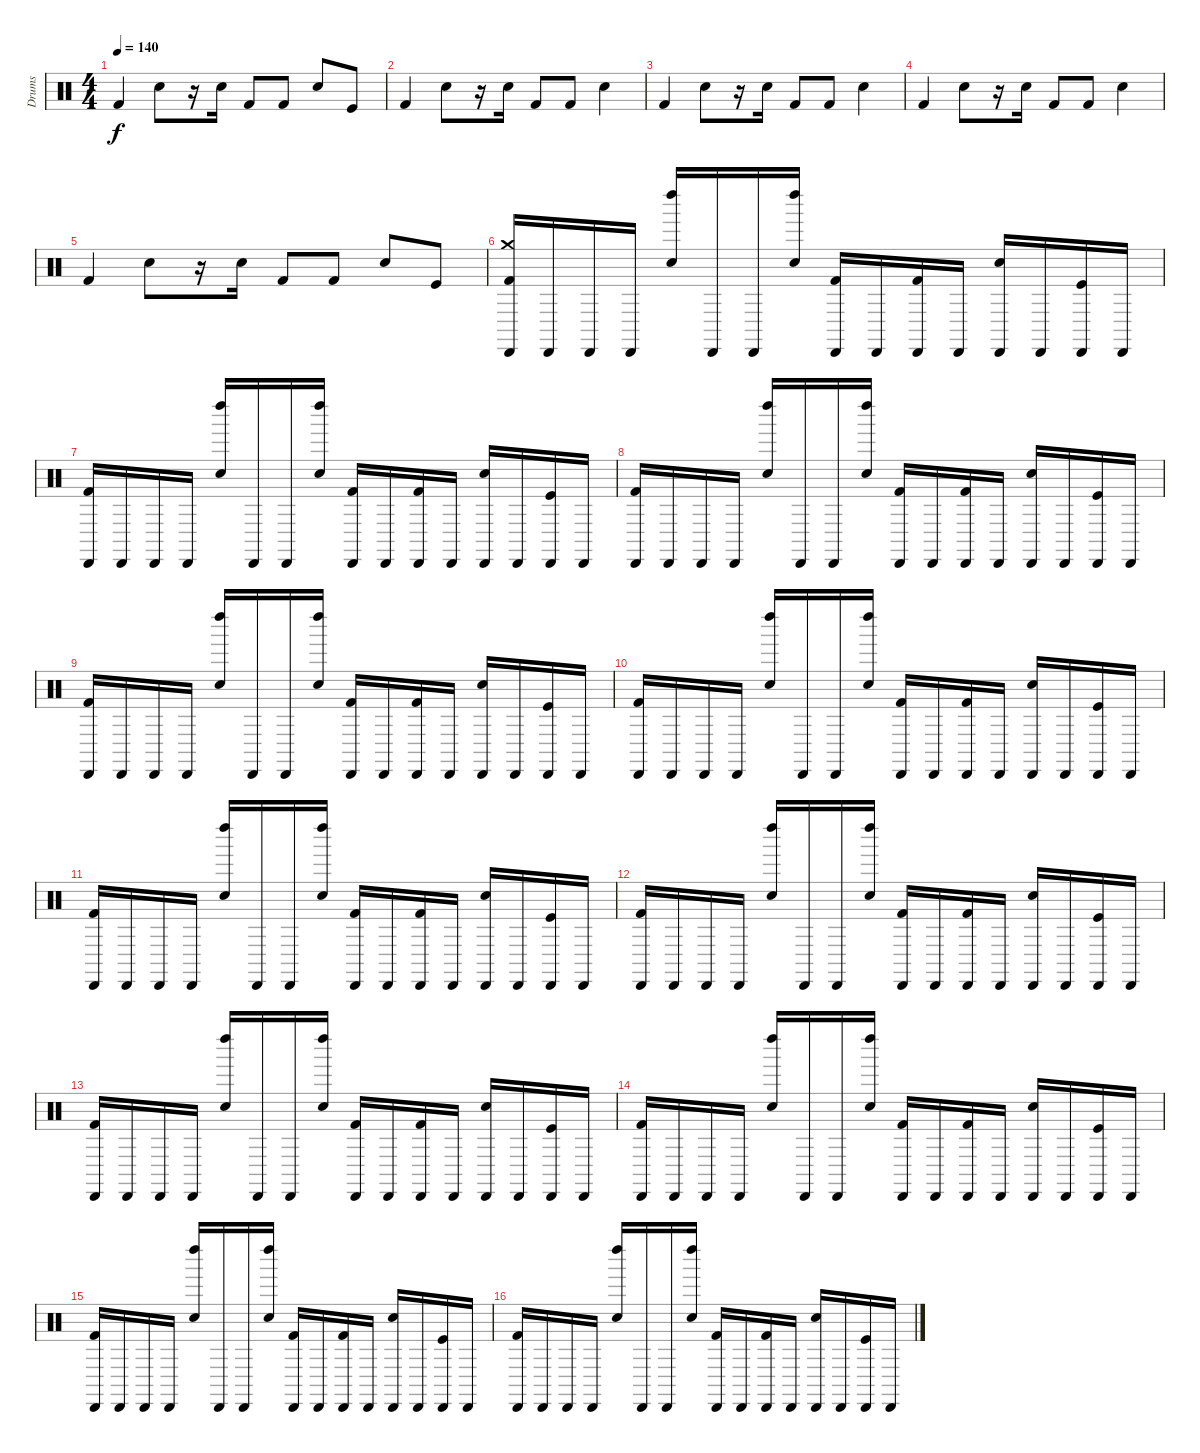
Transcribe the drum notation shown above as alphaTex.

\track ("Drums" "Drums") {instrument percussion}
\staff {score}
\articulation defaults
\ts (4 4)
\tempo 140
\clef neutral
\ks c "Kick (hit) 2".4{dy f} "Electric Snare (hit)".8
r.16 "Electric Snare (hit)".16 "Kick (hit) 2".8 "Kick (hit) 2".8 "Electric Snare (hit)".8 "Kick (hit)".8 |
"Kick (hit) 2".4 "Electric Snare (hit)".8 r.16 "Electric Snare (hit)".16 "Kick (hit) 2".8 "Kick (hit) 2".8 "Electric Snare (hit)".4 |
"Kick (hit) 2".4 "Electric Snare (hit)".8 r.16 "Electric Snare (hit)".16 "Kick (hit) 2".8 "Kick (hit) 2".8 "Electric Snare (hit)".4 |
"Kick (hit) 2".4 "Electric Snare (hit)".8 r.16 "Electric Snare (hit)".16 "Kick (hit) 2".8 "Kick (hit) 2".8 "Electric Snare (hit)".4 |
"Kick (hit) 2".4 "Electric Snare (hit)".8 r.16 "Electric Snare (hit)".16 "Kick (hit) 2".8 "Kick (hit) 2".8 "Electric Snare (hit)".8 "Kick (hit)".8 |
("Cabasa (hit)" "Crash medium (hit)" "Kick (hit) 2").16 "Cabasa (hit)".16 "Cabasa (hit)".16 "Cabasa (hit)".16 ("Left Maraca (hit)" "Electric Snare (hit)").16 "Cabasa (hit)".16 "Cabasa (hit)".16 ("Left Maraca (hit)" "Electric Snare (hit)").16 ("Cabasa (hit)" "Kick (hit) 2").16 "Cabasa (hit)".16 ("Cabasa (hit)" "Kick (hit) 2").16 "Cabasa (hit)".16 ("Cabasa (hit)" "Electric Snare (hit)").16 "Cabasa (hit)".16 ("Cabasa (hit)" "Kick (hit)").16 "Cabasa (hit)".16 |
("Cabasa (hit)" "Kick (hit) 2").16 "Cabasa (hit)".16 "Cabasa (hit)".16 "Cabasa (hit)".16 ("Left Maraca (hit)" "Electric Snare (hit)").16 "Cabasa (hit)".16 "Cabasa (hit)".16 ("Left Maraca (hit)" "Electric Snare (hit)").16 ("Cabasa (hit)" "Kick (hit) 2").16 "Cabasa (hit)".16 ("Cabasa (hit)" "Kick (hit) 2").16 "Cabasa (hit)".16 ("Cabasa (hit)" "Electric Snare (hit)").16 "Cabasa (hit)".16 ("Cabasa (hit)" "Kick (hit)").16 "Cabasa (hit)".16 |
("Cabasa (hit)" "Kick (hit) 2").16 "Cabasa (hit)".16 "Cabasa (hit)".16 "Cabasa (hit)".16 ("Left Maraca (hit)" "Electric Snare (hit)").16 "Cabasa (hit)".16 "Cabasa (hit)".16 ("Left Maraca (hit)" "Electric Snare (hit)").16 ("Cabasa (hit)" "Kick (hit) 2").16 "Cabasa (hit)".16 ("Cabasa (hit)" "Kick (hit) 2").16 "Cabasa (hit)".16 ("Cabasa (hit)" "Electric Snare (hit)").16 "Cabasa (hit)".16 ("Cabasa (hit)" "Kick (hit)").16 "Cabasa (hit)".16 |
("Cabasa (hit)" "Kick (hit) 2").16 "Cabasa (hit)".16 "Cabasa (hit)".16 "Cabasa (hit)".16 ("Left Maraca (hit)" "Electric Snare (hit)").16 "Cabasa (hit)".16 "Cabasa (hit)".16 ("Left Maraca (hit)" "Electric Snare (hit)").16 ("Cabasa (hit)" "Kick (hit) 2").16 "Cabasa (hit)".16 ("Cabasa (hit)" "Kick (hit) 2").16 "Cabasa (hit)".16 ("Cabasa (hit)" "Electric Snare (hit)").16 "Cabasa (hit)".16 ("Cabasa (hit)" "Kick (hit)").16 "Cabasa (hit)".16 |
("Cabasa (hit)" "Kick (hit) 2").16 "Cabasa (hit)".16 "Cabasa (hit)".16 "Cabasa (hit)".16 ("Left Maraca (hit)" "Electric Snare (hit)").16 "Cabasa (hit)".16 "Cabasa (hit)".16 ("Left Maraca (hit)" "Electric Snare (hit)").16 ("Cabasa (hit)" "Kick (hit) 2").16 "Cabasa (hit)".16 ("Cabasa (hit)" "Kick (hit) 2").16 "Cabasa (hit)".16 ("Cabasa (hit)" "Electric Snare (hit)").16 "Cabasa (hit)".16 ("Cabasa (hit)" "Kick (hit)").16 "Cabasa (hit)".16 |
("Cabasa (hit)" "Kick (hit) 2").16 "Cabasa (hit)".16 "Cabasa (hit)".16 "Cabasa (hit)".16 ("Left Maraca (hit)" "Electric Snare (hit)").16 "Cabasa (hit)".16 "Cabasa (hit)".16 ("Left Maraca (hit)" "Electric Snare (hit)").16 ("Cabasa (hit)" "Kick (hit) 2").16 "Cabasa (hit)".16 ("Cabasa (hit)" "Kick (hit) 2").16 "Cabasa (hit)".16 ("Cabasa (hit)" "Electric Snare (hit)").16 "Cabasa (hit)".16 ("Cabasa (hit)" "Kick (hit)").16 "Cabasa (hit)".16 |
("Cabasa (hit)" "Kick (hit) 2").16 "Cabasa (hit)".16 "Cabasa (hit)".16 "Cabasa (hit)".16 ("Left Maraca (hit)" "Electric Snare (hit)").16 "Cabasa (hit)".16 "Cabasa (hit)".16 ("Left Maraca (hit)" "Electric Snare (hit)").16 ("Cabasa (hit)" "Kick (hit) 2").16 "Cabasa (hit)".16 ("Cabasa (hit)" "Kick (hit) 2").16 "Cabasa (hit)".16 ("Cabasa (hit)" "Electric Snare (hit)").16 "Cabasa (hit)".16 ("Cabasa (hit)" "Kick (hit)").16 "Cabasa (hit)".16 |
("Cabasa (hit)" "Kick (hit) 2").16 "Cabasa (hit)".16 "Cabasa (hit)".16 "Cabasa (hit)".16 ("Left Maraca (hit)" "Electric Snare (hit)").16 "Cabasa (hit)".16 "Cabasa (hit)".16 ("Left Maraca (hit)" "Electric Snare (hit)").16 ("Cabasa (hit)" "Kick (hit) 2").16 "Cabasa (hit)".16 ("Cabasa (hit)" "Kick (hit) 2").16 "Cabasa (hit)".16 ("Cabasa (hit)" "Electric Snare (hit)").16 "Cabasa (hit)".16 ("Cabasa (hit)" "Kick (hit)").16 "Cabasa (hit)".16 |
("Cabasa (hit)" "Kick (hit) 2").16 "Cabasa (hit)".16 "Cabasa (hit)".16 "Cabasa (hit)".16 ("Left Maraca (hit)" "Electric Snare (hit)").16 "Cabasa (hit)".16 "Cabasa (hit)".16 ("Left Maraca (hit)" "Electric Snare (hit)").16 ("Cabasa (hit)" "Kick (hit) 2").16 "Cabasa (hit)".16 ("Cabasa (hit)" "Kick (hit) 2").16 "Cabasa (hit)".16 ("Cabasa (hit)" "Electric Snare (hit)").16 "Cabasa (hit)".16 ("Cabasa (hit)" "Kick (hit)").16 "Cabasa (hit)".16 |
("Cabasa (hit)" "Kick (hit) 2").16 "Cabasa (hit)".16 "Cabasa (hit)".16 "Cabasa (hit)".16 ("Left Maraca (hit)" "Electric Snare (hit)").16 "Cabasa (hit)".16 "Cabasa (hit)".16 ("Left Maraca (hit)" "Electric Snare (hit)").16 ("Cabasa (hit)" "Kick (hit) 2").16 "Cabasa (hit)".16 ("Cabasa (hit)" "Kick (hit) 2").16 "Cabasa (hit)".16 ("Cabasa (hit)" "Electric Snare (hit)").16 "Cabasa (hit)".16 ("Cabasa (hit)" "Kick (hit)").16 "Cabasa (hit)".16 |
("Cabasa (hit)" "Kick (hit) 2").16 "Cabasa (hit)".16 "Cabasa (hit)".16 "Cabasa (hit)".16 ("Left Maraca (hit)" "Electric Snare (hit)").16 "Cabasa (hit)".16 "Cabasa (hit)".16 ("Left Maraca (hit)" "Electric Snare (hit)").16 ("Cabasa (hit)" "Kick (hit) 2").16 "Cabasa (hit)".16 ("Cabasa (hit)" "Kick (hit) 2").16 "Cabasa (hit)".16 ("Cabasa (hit)" "Electric Snare (hit)").16 "Cabasa (hit)".16 ("Cabasa (hit)" "Kick (hit)").16 "Cabasa (hit)".16
